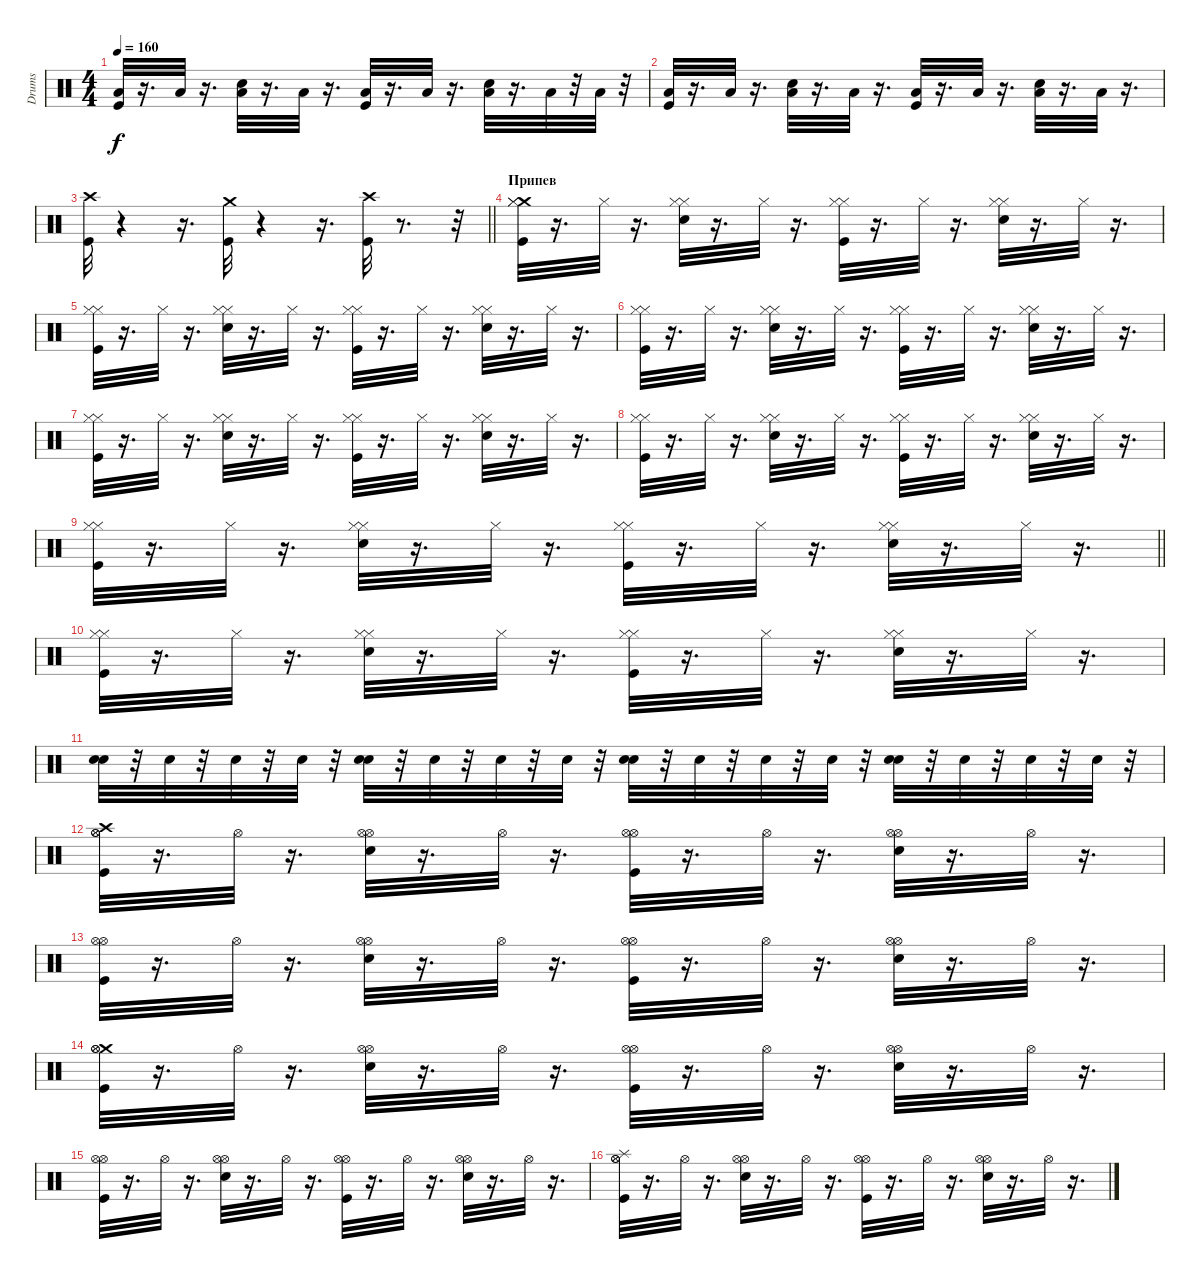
\track ("Drums" "Drums") {instrument percussion}
\staff {score}
\articulation defaults
\ts (4 4)
\tempo 160
\clef neutral
\ks c
("Kick (hit)" "Low Floor Tom (hit)").32{dy f} r.16{d} "Low Floor Tom (hit)".32 r.16{d} ("Low Floor Tom (hit)" "Snare (hit) 2").32 r.16{d} "Low Floor Tom (hit)".32 r.16{d} ("Kick (hit)" "Low Floor Tom (hit)").32 r.16{d} "Low Floor Tom (hit)".32 r.16{d} ("Low Floor Tom (hit)" "Snare (hit) 2").32 r.16{d} "Low Floor Tom (hit)".32 r.32 "Low Floor Tom (hit)".32 r.32 |
("Kick (hit)" "Low Floor Tom (hit)").32 r.16{d} "Low Floor Tom (hit)".32 r.16{d} ("Low Floor Tom (hit)" "Snare (hit) 2").32 r.16{d} "Low Floor Tom (hit)".32 r.16{d} ("Low Floor Tom (hit)" "Kick (hit)").32 r.16{d} "Low Floor Tom (hit)".32 r.16{d} ("Snare (hit) 2" "Low Floor Tom (hit)").32 r.16{d} "Low Floor Tom (hit)".32 r.16{d} |
\barLineRight lightlight
("Crash high (hit)" "Kick (hit)").32 r.4 r.16{d} ("Kick (hit)" "Crash medium (hit)").32 r.4 r.16{d} ("Crash high (hit)" "Kick (hit)").32 r.8{d} r.32 |
\section ("" "Припев")
("Crash medium (hit)" "Hi-Hat (closed)" "Hi-Hat (closed)" "Kick (hit)").32 r.16{d} "Hi-Hat (closed)".32 r.16{d} ("Hi-Hat (closed)" "Hi-Hat (closed)" "Snare (hit) 2").32 r.16{d} "Hi-Hat (closed)".32 r.16{d} ("Hi-Hat (closed)" "Hi-Hat (closed)" "Kick (hit)").32 r.16{d} "Hi-Hat (closed)".32 r.16{d} ("Hi-Hat (closed)" "Hi-Hat (closed)" "Snare (hit) 2").32 r.16{d} "Hi-Hat (closed)".32 r.16{d} |
("Hi-Hat (closed)" "Hi-Hat (closed)" "Kick (hit)").32 r.16{d} "Hi-Hat (closed)".32 r.16{d} ("Hi-Hat (closed)" "Hi-Hat (closed)" "Snare (hit) 2").32 r.16{d} "Hi-Hat (closed)".32 r.16{d} ("Hi-Hat (closed)" "Hi-Hat (closed)" "Kick (hit)").32 r.16{d} "Hi-Hat (closed)".32 r.16{d} ("Hi-Hat (closed)" "Hi-Hat (closed)" "Snare (hit) 2").32 r.16{d} "Hi-Hat (closed)".32 r.16{d} |
("Hi-Hat (closed)" "Hi-Hat (closed)" "Kick (hit)").32 r.16{d} "Hi-Hat (closed)".32 r.16{d} ("Hi-Hat (closed)" "Hi-Hat (closed)" "Snare (hit) 2").32 r.16{d} "Hi-Hat (closed)".32 r.16{d} ("Hi-Hat (closed)" "Hi-Hat (closed)" "Kick (hit)").32 r.16{d} "Hi-Hat (closed)".32 r.16{d} ("Hi-Hat (closed)" "Hi-Hat (closed)" "Snare (hit) 2").32 r.16{d} "Hi-Hat (closed)".32 r.16{d} |
("Hi-Hat (closed)" "Hi-Hat (closed)" "Kick (hit)").32 r.16{d} "Hi-Hat (closed)".32 r.16{d} ("Hi-Hat (closed)" "Hi-Hat (closed)" "Snare (hit) 2").32 r.16{d} "Hi-Hat (closed)".32 r.16{d} ("Hi-Hat (closed)" "Hi-Hat (closed)" "Kick (hit)").32 r.16{d} "Hi-Hat (closed)".32 r.16{d} ("Hi-Hat (closed)" "Hi-Hat (closed)" "Snare (hit) 2").32 r.16{d} "Hi-Hat (closed)".32 r.16{d} |
("Hi-Hat (closed)" "Hi-Hat (closed)" "Kick (hit)").32 r.16{d} "Hi-Hat (closed)".32 r.16{d} ("Hi-Hat (closed)" "Hi-Hat (closed)" "Snare (hit) 2").32 r.16{d} "Hi-Hat (closed)".32 r.16{d} ("Hi-Hat (closed)" "Hi-Hat (closed)" "Kick (hit)").32 r.16{d} "Hi-Hat (closed)".32 r.16{d} ("Hi-Hat (closed)" "Hi-Hat (closed)" "Snare (hit) 2").32 r.16{d} "Hi-Hat (closed)".32 r.16{d} |
\barLineRight lightlight
("Hi-Hat (closed)" "Hi-Hat (closed)" "Kick (hit)").32 r.16{d} "Hi-Hat (closed)".32 r.16{d} ("Hi-Hat (closed)" "Hi-Hat (closed)" "Snare (hit) 2").32 r.16{d} "Hi-Hat (closed)".32 r.16{d} ("Hi-Hat (closed)" "Hi-Hat (closed)" "Kick (hit)").32 r.16{d} "Hi-Hat (closed)".32 r.16{d} ("Hi-Hat (closed)" "Hi-Hat (closed)" "Snare (hit) 2").32 r.16{d} "Hi-Hat (closed)".32 r.16{d} |
("Hi-Hat (closed)" "Hi-Hat (closed)" "Kick (hit)").32 r.16{d} "Hi-Hat (closed)".32 r.16{d} ("Hi-Hat (closed)" "Hi-Hat (closed)" "Snare (hit) 2").32 r.16{d} "Hi-Hat (closed)".32 r.16{d} ("Hi-Hat (closed)" "Hi-Hat (closed)" "Kick (hit)").32 r.16{d} "Hi-Hat (closed)".32 r.16{d} ("Hi-Hat (closed)" "Hi-Hat (closed)" "Snare (hit) 2").32 r.16{d} "Hi-Hat (closed)".32 r.16{d} |
("Snare (hit) 2" "Snare (hit) 2").32 r.32 "Snare (hit) 2".32 r.32 "Snare (hit) 2".32 r.32 "Snare (hit) 2".32 r.32 ("Snare (hit) 2" "Snare (hit) 2").32 r.32 "Snare (hit) 2".32 r.32 "Snare (hit) 2".32 r.32 "Snare (hit) 2".32 r.32 ("Snare (hit) 2" "Snare (hit) 2").32 r.32 "Snare (hit) 2".32 r.32 "Snare (hit) 2".32 r.32 "Snare (hit) 2".32 r.32 ("Snare (hit) 2" "Snare (hit) 2").32 r.32 "Snare (hit) 2".32 r.32 "Snare (hit) 2".32 r.32 "Snare (hit) 2".32 r.32 |
("Crash high (hit)" "Kick (hit)" "Hi-Hat (open)" "Hi-Hat (open)").32 r.16{d} "Hi-Hat (open)".32 r.16{d} ("Hi-Hat (open)" "Snare (hit) 2" "Hi-Hat (open)").32 r.16{d} "Hi-Hat (open)".32 r.16{d} ("Hi-Hat (open)" "Kick (hit)" "Hi-Hat (open)").32 r.16{d} "Hi-Hat (open)".32 r.16{d} ("Hi-Hat (open)" "Hi-Hat (open)" "Snare (hit) 2").32 r.16{d} "Hi-Hat (open)".32 r.16{d} |
("Hi-Hat (open)" "Hi-Hat (open)" "Kick (hit)").32 r.16{d} "Hi-Hat (open)".32 r.16{d} ("Snare (hit) 2" "Hi-Hat (open)" "Hi-Hat (open)").32 r.16{d} "Hi-Hat (open)".32 r.16{d} ("Kick (hit)" "Hi-Hat (open)" "Hi-Hat (open)").32 r.16{d} "Hi-Hat (open)".32 r.16{d} ("Hi-Hat (open)" "Hi-Hat (open)" "Snare (hit) 2").32 r.16{d} "Hi-Hat (open)".32 r.16{d} |
("Crash medium (hit)" "Hi-Hat (open)" "Kick (hit)" "Hi-Hat (open)").32 r.16{d} "Hi-Hat (open)".32 r.16{d} ("Hi-Hat (open)" "Snare (hit) 2" "Hi-Hat (open)").32 r.16{d} "Hi-Hat (open)".32 r.16{d} ("Kick (hit)" "Hi-Hat (open)" "Hi-Hat (open)").32 r.16{d} "Hi-Hat (open)".32 r.16{d} ("Hi-Hat (open)" "Hi-Hat (open)" "Snare (hit) 2").32 r.16{d} "Hi-Hat (open)".32 r.16{d} |
("Kick (hit)" "Hi-Hat (open)" "Hi-Hat (open)").32 r.16{d} "Hi-Hat (open)".32 r.16{d} ("Snare (hit) 2" "Hi-Hat (open)" "Hi-Hat (open)").32 r.16{d} "Hi-Hat (open)".32 r.16{d} ("Kick (hit)" "Hi-Hat (open)" "Hi-Hat (open)").32 r.16{d} "Hi-Hat (open)".32 r.16{d} ("Hi-Hat (open)" "Snare (hit) 2" "Hi-Hat (open)").32 r.16{d} "Hi-Hat (open)".32 r.16{d} |
("Splash (hit)" "Hi-Hat (open)" "Kick (hit)" "Hi-Hat (open)").32 r.16{d} "Hi-Hat (open)".32 r.16{d} ("Hi-Hat (open)" "Hi-Hat (open)" "Snare (hit) 2").32 r.16{d} "Hi-Hat (open)".32 r.16{d} ("Hi-Hat (open)" "Hi-Hat (open)" "Kick (hit)").32 r.16{d} "Hi-Hat (open)".32 r.16{d} ("Snare (hit) 2" "Hi-Hat (open)" "Hi-Hat (open)").32 r.16{d} "Hi-Hat (open)".32 r.16{d}
